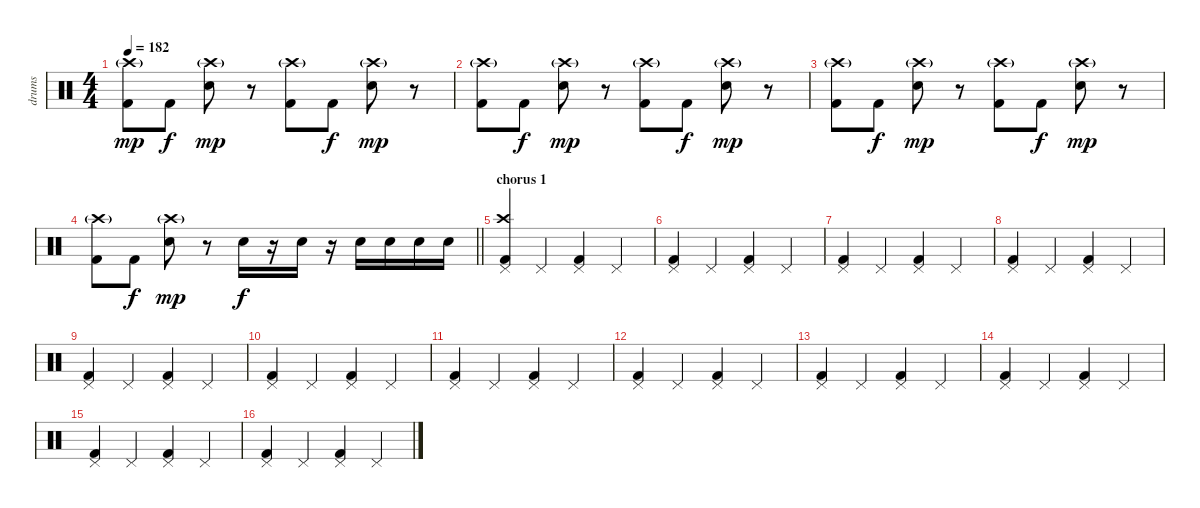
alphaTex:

\track ("drums" "drums") {instrument percussion}
\staff {score}
\articulation defaults
\ts (4 4)
\tempo 182
\clef neutral
\ks c
("Kick (hit) 2" "Crash high (hit)"{g}).8{dy mp} "Kick (hit) 2".8{dy f} ("Electric Snare (hit)" "Crash high (hit)"{g}).8{dy mp} r.8 ("Kick (hit) 2" "Crash high (hit)"{g}).8 "Kick (hit) 2".8{dy f} ("Electric Snare (hit)" "Crash high (hit)"{g}).8{dy mp} r.8 |
("Kick (hit) 2" "Crash high (hit)"{g}).8 "Kick (hit) 2".8{dy f} ("Electric Snare (hit)" "Crash high (hit)"{g}).8{dy mp} r.8 ("Kick (hit) 2" "Crash high (hit)"{g}).8 "Kick (hit) 2".8{dy f} ("Electric Snare (hit)" "Crash high (hit)"{g}).8{dy mp} r.8 |
("Kick (hit) 2" "Crash high (hit)"{g}).8 "Kick (hit) 2".8{dy f} ("Electric Snare (hit)" "Crash high (hit)"{g}).8{dy mp} r.8 ("Kick (hit) 2" "Crash high (hit)"{g}).8 "Kick (hit) 2".8{dy f} ("Electric Snare (hit)" "Crash high (hit)"{g}).8{dy mp} r.8 |
\barLineRight lightlight
("Kick (hit) 2" "Crash high (hit)"{g}).8 "Kick (hit) 2".8{dy f} ("Electric Snare (hit)" "Crash high (hit)"{g}).8{dy mp} r.8 "Electric Snare (hit)".16{dy f} r.16 "Electric Snare (hit)".16 r.16 "Electric Snare (hit)".16 "Electric Snare (hit)".16 "Electric Snare (hit)".16 "Electric Snare (hit)".16 |
\section ("" "chorus 1")
("Kick (hit) 2" "Pedal Hi-Hat (hit)" "Crash high (hit)").4 "Pedal Hi-Hat (hit)".4 ("Kick (hit) 2" "Pedal Hi-Hat (hit)").4 "Pedal Hi-Hat (hit)".4 |
("Kick (hit) 2" "Pedal Hi-Hat (hit)").4 "Pedal Hi-Hat (hit)".4 ("Kick (hit) 2" "Pedal Hi-Hat (hit)").4 "Pedal Hi-Hat (hit)".4 |
("Kick (hit) 2" "Pedal Hi-Hat (hit)").4 "Pedal Hi-Hat (hit)".4 ("Kick (hit) 2" "Pedal Hi-Hat (hit)").4 "Pedal Hi-Hat (hit)".4 |
("Kick (hit) 2" "Pedal Hi-Hat (hit)").4 "Pedal Hi-Hat (hit)".4 ("Kick (hit) 2" "Pedal Hi-Hat (hit)").4 "Pedal Hi-Hat (hit)".4 |
("Kick (hit) 2" "Pedal Hi-Hat (hit)").4 "Pedal Hi-Hat (hit)".4 ("Kick (hit) 2" "Pedal Hi-Hat (hit)").4 "Pedal Hi-Hat (hit)".4 |
("Kick (hit) 2" "Pedal Hi-Hat (hit)").4 "Pedal Hi-Hat (hit)".4 ("Kick (hit) 2" "Pedal Hi-Hat (hit)").4 "Pedal Hi-Hat (hit)".4 |
("Kick (hit) 2" "Pedal Hi-Hat (hit)").4 "Pedal Hi-Hat (hit)".4 ("Kick (hit) 2" "Pedal Hi-Hat (hit)").4 "Pedal Hi-Hat (hit)".4 |
("Kick (hit) 2" "Pedal Hi-Hat (hit)").4 "Pedal Hi-Hat (hit)".4 ("Kick (hit) 2" "Pedal Hi-Hat (hit)").4 "Pedal Hi-Hat (hit)".4 |
("Kick (hit) 2" "Pedal Hi-Hat (hit)").4 "Pedal Hi-Hat (hit)".4 ("Kick (hit) 2" "Pedal Hi-Hat (hit)").4 "Pedal Hi-Hat (hit)".4 |
("Kick (hit) 2" "Pedal Hi-Hat (hit)").4 "Pedal Hi-Hat (hit)".4 ("Kick (hit) 2" "Pedal Hi-Hat (hit)").4 "Pedal Hi-Hat (hit)".4 |
("Kick (hit) 2" "Pedal Hi-Hat (hit)").4 "Pedal Hi-Hat (hit)".4 ("Kick (hit) 2" "Pedal Hi-Hat (hit)").4 "Pedal Hi-Hat (hit)".4 |
("Kick (hit) 2" "Pedal Hi-Hat (hit)").4 "Pedal Hi-Hat (hit)".4 ("Kick (hit) 2" "Pedal Hi-Hat (hit)").4 "Pedal Hi-Hat (hit)".4
